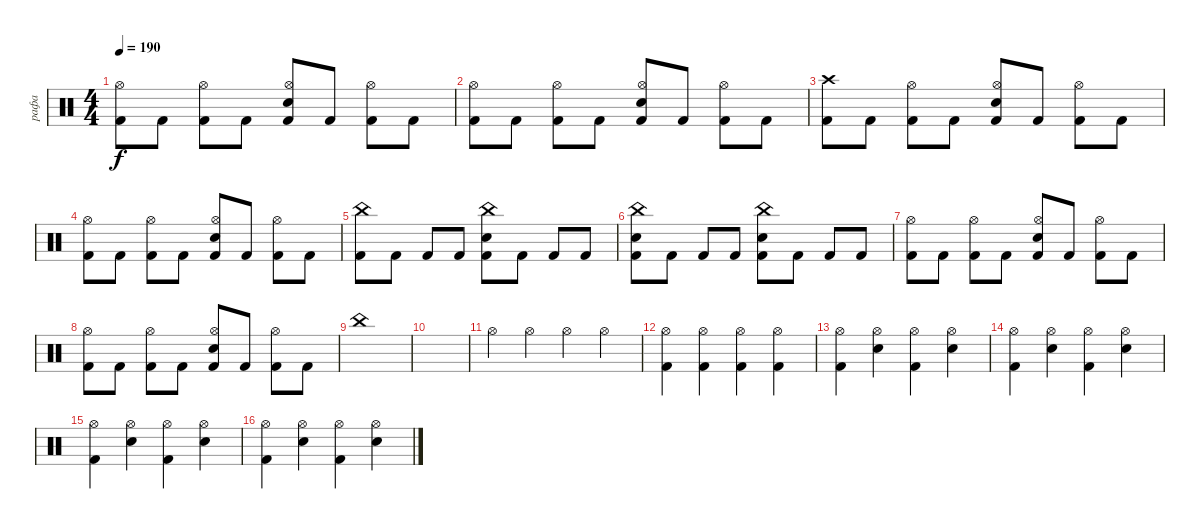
\track ("рафа" "рафа") {instrument percussion}
\staff {score}
\articulation defaults
\ts (4 4)
\tempo 190
\clef neutral
\ks c
("Kick (hit) 2" "Hi-Hat (open)").8{dy f} "Kick (hit) 2".8 ("Kick (hit) 2" "Hi-Hat (open)").8 "Kick (hit) 2".8 ("Kick (hit) 2" "Snare (hit) 2" "Hi-Hat (open)").8 "Kick (hit) 2".8 ("Kick (hit) 2" "Hi-Hat (open)").8 "Kick (hit) 2".8 |
("Kick (hit) 2" "Hi-Hat (open)").8 "Kick (hit) 2".8 ("Kick (hit) 2" "Hi-Hat (open)").8 "Kick (hit) 2".8 ("Kick (hit) 2" "Snare (hit) 2" "Hi-Hat (open)").8 "Kick (hit) 2".8 ("Kick (hit) 2" "Hi-Hat (open)").8 "Kick (hit) 2".8 |
("Kick (hit) 2" "Crash high (hit)").8 "Kick (hit) 2".8 ("Kick (hit) 2" "Hi-Hat (open)").8 "Kick (hit) 2".8 ("Kick (hit) 2" "Snare (hit) 2" "Hi-Hat (open)").8 "Kick (hit) 2".8 ("Kick (hit) 2" "Hi-Hat (open)").8 "Kick (hit) 2".8 |
("Kick (hit) 2" "Hi-Hat (open)").8 "Kick (hit) 2".8 ("Kick (hit) 2" "Hi-Hat (open)").8 "Kick (hit) 2".8 ("Kick (hit) 2" "Snare (hit) 2" "Hi-Hat (open)").8 "Kick (hit) 2".8 ("Kick (hit) 2" "Hi-Hat (open)").8 "Kick (hit) 2".8 |
("Kick (hit) 2" "China (hit)").8 "Kick (hit) 2".8 "Kick (hit) 2".8 "Kick (hit) 2".8 ("Kick (hit) 2" "Snare (hit) 2" "China (hit)").8 "Kick (hit) 2".8 "Kick (hit) 2".8 "Kick (hit) 2".8 |
("Kick (hit) 2" "Snare (hit) 2" "China (hit)").8 "Kick (hit) 2".8 "Kick (hit) 2".8 "Kick (hit) 2".8 ("Kick (hit) 2" "Snare (hit) 2" "China (hit)").8 "Kick (hit) 2".8 "Kick (hit) 2".8 "Kick (hit) 2".8 |
("Kick (hit) 2" "Hi-Hat (open)").8 "Kick (hit) 2".8 ("Kick (hit) 2" "Hi-Hat (open)").8 "Kick (hit) 2".8 ("Kick (hit) 2" "Snare (hit) 2" "Hi-Hat (open)").8 "Kick (hit) 2".8 ("Kick (hit) 2" "Hi-Hat (open)").8 "Kick (hit) 2".8 |
("Kick (hit) 2" "Hi-Hat (open)").8 "Kick (hit) 2".8 ("Kick (hit) 2" "Hi-Hat (open)").8 "Kick (hit) 2".8 ("Kick (hit) 2" "Snare (hit) 2" "Hi-Hat (open)").8 "Kick (hit) 2".8 ("Kick (hit) 2" "Hi-Hat (open)").8 "Kick (hit) 2".8 |
"China (hit)".1 |
|
"Hi-Hat (open)".4 "Hi-Hat (open)".4 "Hi-Hat (open)".4 "Hi-Hat (open)".4 |
("Kick (hit) 2" "Hi-Hat (open)").4 ("Kick (hit) 2" "Hi-Hat (open)").4 ("Kick (hit) 2" "Hi-Hat (open)").4 ("Kick (hit) 2" "Hi-Hat (open)").4 |
("Kick (hit) 2" "Hi-Hat (open)").4 ("Snare (hit) 2" "Hi-Hat (open)").4 ("Kick (hit) 2" "Hi-Hat (open)").4 ("Snare (hit) 2" "Hi-Hat (open)").4 |
("Kick (hit) 2" "Hi-Hat (open)").4 ("Snare (hit) 2" "Hi-Hat (open)").4 ("Kick (hit) 2" "Hi-Hat (open)").4 ("Snare (hit) 2" "Hi-Hat (open)").4 |
("Kick (hit) 2" "Hi-Hat (open)").4 ("Snare (hit) 2" "Hi-Hat (open)").4 ("Kick (hit) 2" "Hi-Hat (open)").4 ("Snare (hit) 2" "Hi-Hat (open)").4 |
("Kick (hit) 2" "Hi-Hat (open)").4 ("Snare (hit) 2" "Hi-Hat (open)").4 ("Kick (hit) 2" "Hi-Hat (open)").4 ("Snare (hit) 2" "Hi-Hat (open)").4
